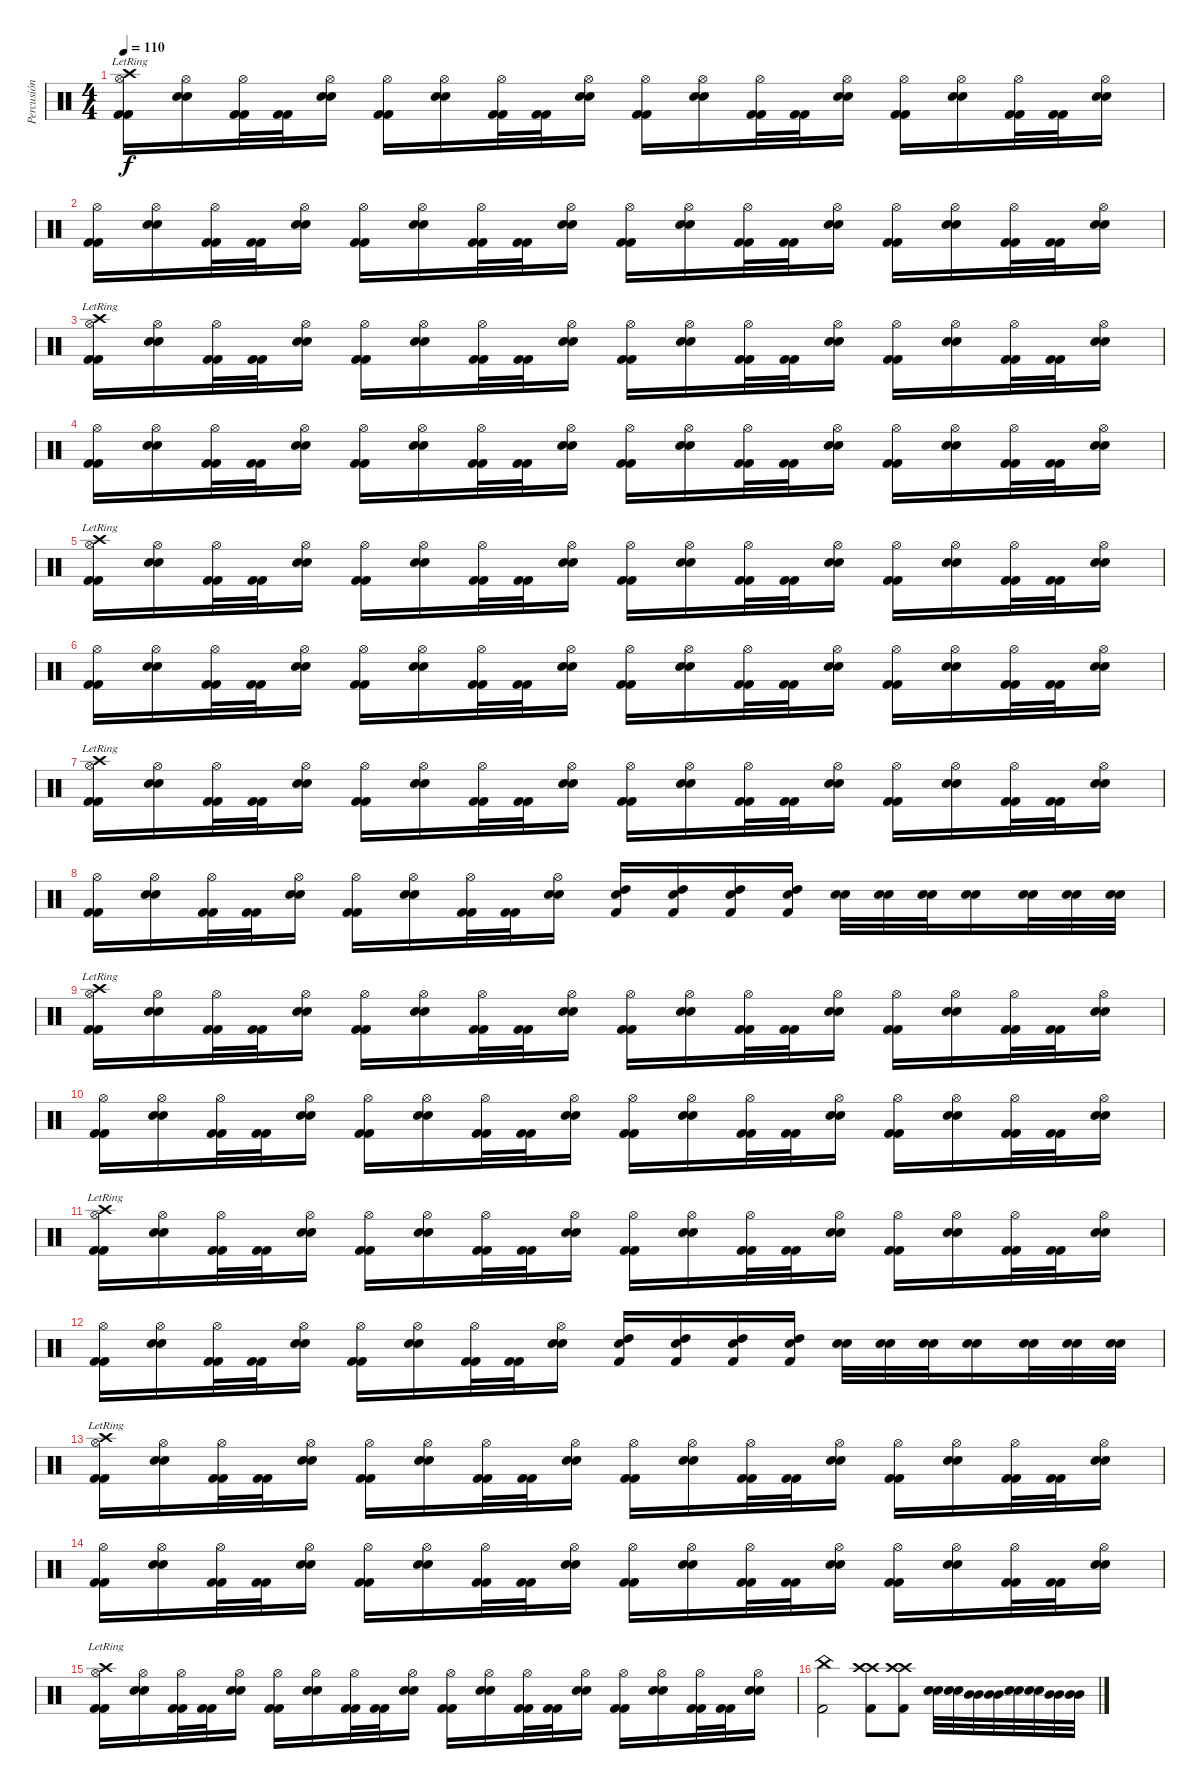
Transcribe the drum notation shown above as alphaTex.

\track ("Percusión" "Percusión") {instrument percussion}
\staff {score}
\articulation defaults
\ts (4 4)
\tempo 110
\clef neutral
\ks c
("Kick (hit) 2" "Kick (hit) 2" "Hi-Hat (open)" "Crash high (hit)"{lr}).16{dy f} ("Snare (hit) 2" "Snare (hit) 2" "Hi-Hat (open)").16 ("Kick (hit) 2" "Kick (hit) 2" "Hi-Hat (open)").32 ("Kick (hit) 2" "Kick (hit) 2").32 ("Snare (hit) 2" "Snare (hit) 2" "Hi-Hat (open)").16 ("Kick (hit) 2" "Kick (hit) 2" "Hi-Hat (open)").16 ("Snare (hit) 2" "Snare (hit) 2" "Hi-Hat (open)").16 ("Kick (hit) 2" "Kick (hit) 2" "Hi-Hat (open)").32 ("Kick (hit) 2" "Kick (hit) 2").32 ("Snare (hit) 2" "Snare (hit) 2" "Hi-Hat (open)").16 ("Kick (hit) 2" "Kick (hit) 2" "Hi-Hat (open)").16 ("Snare (hit) 2" "Snare (hit) 2" "Hi-Hat (open)").16 ("Kick (hit) 2" "Kick (hit) 2" "Hi-Hat (open)").32 ("Kick (hit) 2" "Kick (hit) 2").32 ("Snare (hit) 2" "Snare (hit) 2" "Hi-Hat (open)").16 ("Kick (hit) 2" "Kick (hit) 2" "Hi-Hat (open)").16 ("Snare (hit) 2" "Snare (hit) 2" "Hi-Hat (open)").16 ("Kick (hit) 2" "Kick (hit) 2" "Hi-Hat (open)").32 ("Kick (hit) 2" "Kick (hit) 2").32 ("Snare (hit) 2" "Snare (hit) 2" "Hi-Hat (open)").16 |
("Kick (hit) 2" "Kick (hit) 2" "Hi-Hat (open)").16 ("Snare (hit) 2" "Snare (hit) 2" "Hi-Hat (open)").16 ("Kick (hit) 2" "Kick (hit) 2" "Hi-Hat (open)").32 ("Kick (hit) 2" "Kick (hit) 2").32 ("Snare (hit) 2" "Snare (hit) 2" "Hi-Hat (open)").16 ("Kick (hit) 2" "Kick (hit) 2" "Hi-Hat (open)").16 ("Snare (hit) 2" "Snare (hit) 2" "Hi-Hat (open)").16 ("Kick (hit) 2" "Kick (hit) 2" "Hi-Hat (open)").32 ("Kick (hit) 2" "Kick (hit) 2").32 ("Snare (hit) 2" "Snare (hit) 2" "Hi-Hat (open)").16 ("Kick (hit) 2" "Kick (hit) 2" "Hi-Hat (open)").16 ("Snare (hit) 2" "Snare (hit) 2" "Hi-Hat (open)").16 ("Kick (hit) 2" "Kick (hit) 2" "Hi-Hat (open)").32 ("Kick (hit) 2" "Kick (hit) 2").32 ("Snare (hit) 2" "Snare (hit) 2" "Hi-Hat (open)").16 ("Kick (hit) 2" "Kick (hit) 2" "Hi-Hat (open)").16 ("Snare (hit) 2" "Snare (hit) 2" "Hi-Hat (open)").16 ("Kick (hit) 2" "Kick (hit) 2" "Hi-Hat (open)").32 ("Kick (hit) 2" "Kick (hit) 2").32 ("Snare (hit) 2" "Snare (hit) 2" "Hi-Hat (open)").16 |
("Kick (hit) 2" "Kick (hit) 2" "Hi-Hat (open)" "Crash high (hit)"{lr}).16 ("Snare (hit) 2" "Snare (hit) 2" "Hi-Hat (open)").16 ("Kick (hit) 2" "Kick (hit) 2" "Hi-Hat (open)").32 ("Kick (hit) 2" "Kick (hit) 2").32 ("Snare (hit) 2" "Snare (hit) 2" "Hi-Hat (open)").16 ("Kick (hit) 2" "Kick (hit) 2" "Hi-Hat (open)").16 ("Snare (hit) 2" "Snare (hit) 2" "Hi-Hat (open)").16 ("Kick (hit) 2" "Kick (hit) 2" "Hi-Hat (open)").32 ("Kick (hit) 2" "Kick (hit) 2").32 ("Snare (hit) 2" "Snare (hit) 2" "Hi-Hat (open)").16 ("Kick (hit) 2" "Kick (hit) 2" "Hi-Hat (open)").16 ("Snare (hit) 2" "Snare (hit) 2" "Hi-Hat (open)").16 ("Kick (hit) 2" "Kick (hit) 2" "Hi-Hat (open)").32 ("Kick (hit) 2" "Kick (hit) 2").32 ("Snare (hit) 2" "Snare (hit) 2" "Hi-Hat (open)").16 ("Kick (hit) 2" "Kick (hit) 2" "Hi-Hat (open)").16 ("Snare (hit) 2" "Snare (hit) 2" "Hi-Hat (open)").16 ("Kick (hit) 2" "Kick (hit) 2" "Hi-Hat (open)").32 ("Kick (hit) 2" "Kick (hit) 2").32 ("Snare (hit) 2" "Snare (hit) 2" "Hi-Hat (open)").16 |
("Kick (hit) 2" "Kick (hit) 2" "Hi-Hat (open)").16 ("Snare (hit) 2" "Snare (hit) 2" "Hi-Hat (open)").16 ("Kick (hit) 2" "Kick (hit) 2" "Hi-Hat (open)").32 ("Kick (hit) 2" "Kick (hit) 2").32 ("Snare (hit) 2" "Snare (hit) 2" "Hi-Hat (open)").16 ("Kick (hit) 2" "Kick (hit) 2" "Hi-Hat (open)").16 ("Snare (hit) 2" "Snare (hit) 2" "Hi-Hat (open)").16 ("Kick (hit) 2" "Kick (hit) 2" "Hi-Hat (open)").32 ("Kick (hit) 2" "Kick (hit) 2").32 ("Snare (hit) 2" "Snare (hit) 2" "Hi-Hat (open)").16 ("Kick (hit) 2" "Kick (hit) 2" "Hi-Hat (open)").16 ("Snare (hit) 2" "Snare (hit) 2" "Hi-Hat (open)").16 ("Kick (hit) 2" "Kick (hit) 2" "Hi-Hat (open)").32 ("Kick (hit) 2" "Kick (hit) 2").32 ("Snare (hit) 2" "Snare (hit) 2" "Hi-Hat (open)").16 ("Kick (hit) 2" "Kick (hit) 2" "Hi-Hat (open)").16 ("Snare (hit) 2" "Snare (hit) 2" "Hi-Hat (open)").16 ("Kick (hit) 2" "Kick (hit) 2" "Hi-Hat (open)").32 ("Kick (hit) 2" "Kick (hit) 2").32 ("Snare (hit) 2" "Snare (hit) 2" "Hi-Hat (open)").16 |
("Kick (hit) 2" "Kick (hit) 2" "Hi-Hat (open)" "Crash high (hit)"{lr}).16 ("Snare (hit) 2" "Snare (hit) 2" "Hi-Hat (open)").16 ("Kick (hit) 2" "Kick (hit) 2" "Hi-Hat (open)").32 ("Kick (hit) 2" "Kick (hit) 2").32 ("Snare (hit) 2" "Snare (hit) 2" "Hi-Hat (open)").16 ("Kick (hit) 2" "Kick (hit) 2" "Hi-Hat (open)").16 ("Snare (hit) 2" "Snare (hit) 2" "Hi-Hat (open)").16 ("Kick (hit) 2" "Kick (hit) 2" "Hi-Hat (open)").32 ("Kick (hit) 2" "Kick (hit) 2").32 ("Snare (hit) 2" "Snare (hit) 2" "Hi-Hat (open)").16 ("Kick (hit) 2" "Kick (hit) 2" "Hi-Hat (open)").16 ("Snare (hit) 2" "Snare (hit) 2" "Hi-Hat (open)").16 ("Kick (hit) 2" "Kick (hit) 2" "Hi-Hat (open)").32 ("Kick (hit) 2" "Kick (hit) 2").32 ("Snare (hit) 2" "Snare (hit) 2" "Hi-Hat (open)").16 ("Kick (hit) 2" "Kick (hit) 2" "Hi-Hat (open)").16 ("Snare (hit) 2" "Snare (hit) 2" "Hi-Hat (open)").16 ("Kick (hit) 2" "Kick (hit) 2" "Hi-Hat (open)").32 ("Kick (hit) 2" "Kick (hit) 2").32 ("Snare (hit) 2" "Snare (hit) 2" "Hi-Hat (open)").16 |
("Kick (hit) 2" "Kick (hit) 2" "Hi-Hat (open)").16 ("Snare (hit) 2" "Snare (hit) 2" "Hi-Hat (open)").16 ("Kick (hit) 2" "Kick (hit) 2" "Hi-Hat (open)").32 ("Kick (hit) 2" "Kick (hit) 2").32 ("Snare (hit) 2" "Snare (hit) 2" "Hi-Hat (open)").16 ("Kick (hit) 2" "Kick (hit) 2" "Hi-Hat (open)").16 ("Snare (hit) 2" "Snare (hit) 2" "Hi-Hat (open)").16 ("Kick (hit) 2" "Kick (hit) 2" "Hi-Hat (open)").32 ("Kick (hit) 2" "Kick (hit) 2").32 ("Snare (hit) 2" "Snare (hit) 2" "Hi-Hat (open)").16 ("Kick (hit) 2" "Kick (hit) 2" "Hi-Hat (open)").16 ("Snare (hit) 2" "Snare (hit) 2" "Hi-Hat (open)").16 ("Kick (hit) 2" "Kick (hit) 2" "Hi-Hat (open)").32 ("Kick (hit) 2" "Kick (hit) 2").32 ("Snare (hit) 2" "Snare (hit) 2" "Hi-Hat (open)").16 ("Kick (hit) 2" "Kick (hit) 2" "Hi-Hat (open)").16 ("Snare (hit) 2" "Snare (hit) 2" "Hi-Hat (open)").16 ("Kick (hit) 2" "Kick (hit) 2" "Hi-Hat (open)").32 ("Kick (hit) 2" "Kick (hit) 2").32 ("Snare (hit) 2" "Snare (hit) 2" "Hi-Hat (open)").16 |
("Kick (hit) 2" "Kick (hit) 2" "Hi-Hat (open)" "Crash high (hit)"{lr}).16 ("Snare (hit) 2" "Snare (hit) 2" "Hi-Hat (open)").16 ("Kick (hit) 2" "Kick (hit) 2" "Hi-Hat (open)").32 ("Kick (hit) 2" "Kick (hit) 2").32 ("Snare (hit) 2" "Snare (hit) 2" "Hi-Hat (open)").16 ("Kick (hit) 2" "Kick (hit) 2" "Hi-Hat (open)").16 ("Snare (hit) 2" "Snare (hit) 2" "Hi-Hat (open)").16 ("Kick (hit) 2" "Kick (hit) 2" "Hi-Hat (open)").32 ("Kick (hit) 2" "Kick (hit) 2").32 ("Snare (hit) 2" "Snare (hit) 2" "Hi-Hat (open)").16 ("Kick (hit) 2" "Kick (hit) 2" "Hi-Hat (open)").16 ("Snare (hit) 2" "Snare (hit) 2" "Hi-Hat (open)").16 ("Kick (hit) 2" "Kick (hit) 2" "Hi-Hat (open)").32 ("Kick (hit) 2" "Kick (hit) 2").32 ("Snare (hit) 2" "Snare (hit) 2" "Hi-Hat (open)").16 ("Kick (hit) 2" "Kick (hit) 2" "Hi-Hat (open)").16 ("Snare (hit) 2" "Snare (hit) 2" "Hi-Hat (open)").16 ("Kick (hit) 2" "Kick (hit) 2" "Hi-Hat (open)").32 ("Kick (hit) 2" "Kick (hit) 2").32 ("Snare (hit) 2" "Snare (hit) 2" "Hi-Hat (open)").16 |
("Kick (hit) 2" "Kick (hit) 2" "Hi-Hat (open)").16 ("Snare (hit) 2" "Snare (hit) 2" "Hi-Hat (open)").16 ("Kick (hit) 2" "Kick (hit) 2" "Hi-Hat (open)").32 ("Kick (hit) 2" "Kick (hit) 2").32 ("Snare (hit) 2" "Snare (hit) 2" "Hi-Hat (open)").16 ("Kick (hit) 2" "Kick (hit) 2" "Hi-Hat (open)").16 ("Snare (hit) 2" "Snare (hit) 2" "Hi-Hat (open)").16 ("Kick (hit) 2" "Kick (hit) 2" "Hi-Hat (open)").32 ("Kick (hit) 2" "Kick (hit) 2").32 ("Snare (hit) 2" "Snare (hit) 2" "Hi-Hat (open)").16 ("Snare (hit) 2" "High Tom (hit)" "Kick (hit) 2").16 ("Snare (hit) 2" "High Tom (hit)" "Kick (hit) 2").16 ("Snare (hit) 2" "High Tom (hit)" "Kick (hit) 2").16 ("Snare (hit) 2" "High Tom (hit)" "Kick (hit) 2").16 ("Snare (hit) 2" "Snare (hit) 2").32 ("Snare (hit) 2" "Snare (hit) 2").32 ("Snare (hit) 2" "Snare (hit) 2").32 ("Snare (hit) 2" "Snare (hit) 2").16 ("Snare (hit) 2" "Snare (hit) 2").32 ("Snare (hit) 2" "Snare (hit) 2").32 ("Snare (hit) 2" "Snare (hit) 2").32 |
("Kick (hit) 2" "Kick (hit) 2" "Hi-Hat (open)" "Crash high (hit)"{lr}).16 ("Snare (hit) 2" "Snare (hit) 2" "Hi-Hat (open)").16 ("Kick (hit) 2" "Kick (hit) 2" "Hi-Hat (open)").32 ("Kick (hit) 2" "Kick (hit) 2").32 ("Snare (hit) 2" "Snare (hit) 2" "Hi-Hat (open)").16 ("Kick (hit) 2" "Kick (hit) 2" "Hi-Hat (open)").16 ("Snare (hit) 2" "Snare (hit) 2" "Hi-Hat (open)").16 ("Kick (hit) 2" "Kick (hit) 2" "Hi-Hat (open)").32 ("Kick (hit) 2" "Kick (hit) 2").32 ("Snare (hit) 2" "Snare (hit) 2" "Hi-Hat (open)").16 ("Kick (hit) 2" "Kick (hit) 2" "Hi-Hat (open)").16 ("Snare (hit) 2" "Snare (hit) 2" "Hi-Hat (open)").16 ("Kick (hit) 2" "Kick (hit) 2" "Hi-Hat (open)").32 ("Kick (hit) 2" "Kick (hit) 2").32 ("Snare (hit) 2" "Snare (hit) 2" "Hi-Hat (open)").16 ("Kick (hit) 2" "Kick (hit) 2" "Hi-Hat (open)").16 ("Snare (hit) 2" "Snare (hit) 2" "Hi-Hat (open)").16 ("Kick (hit) 2" "Kick (hit) 2" "Hi-Hat (open)").32 ("Kick (hit) 2" "Kick (hit) 2").32 ("Snare (hit) 2" "Snare (hit) 2" "Hi-Hat (open)").16 |
("Kick (hit) 2" "Kick (hit) 2" "Hi-Hat (open)").16 ("Snare (hit) 2" "Snare (hit) 2" "Hi-Hat (open)").16 ("Kick (hit) 2" "Kick (hit) 2" "Hi-Hat (open)").32 ("Kick (hit) 2" "Kick (hit) 2").32 ("Snare (hit) 2" "Snare (hit) 2" "Hi-Hat (open)").16 ("Kick (hit) 2" "Kick (hit) 2" "Hi-Hat (open)").16 ("Snare (hit) 2" "Snare (hit) 2" "Hi-Hat (open)").16 ("Kick (hit) 2" "Kick (hit) 2" "Hi-Hat (open)").32 ("Kick (hit) 2" "Kick (hit) 2").32 ("Snare (hit) 2" "Snare (hit) 2" "Hi-Hat (open)").16 ("Kick (hit) 2" "Kick (hit) 2" "Hi-Hat (open)").16 ("Snare (hit) 2" "Snare (hit) 2" "Hi-Hat (open)").16 ("Kick (hit) 2" "Kick (hit) 2" "Hi-Hat (open)").32 ("Kick (hit) 2" "Kick (hit) 2").32 ("Snare (hit) 2" "Snare (hit) 2" "Hi-Hat (open)").16 ("Kick (hit) 2" "Kick (hit) 2" "Hi-Hat (open)").16 ("Snare (hit) 2" "Snare (hit) 2" "Hi-Hat (open)").16 ("Kick (hit) 2" "Kick (hit) 2" "Hi-Hat (open)").32 ("Kick (hit) 2" "Kick (hit) 2").32 ("Snare (hit) 2" "Snare (hit) 2" "Hi-Hat (open)").16 |
("Kick (hit) 2" "Kick (hit) 2" "Hi-Hat (open)" "Crash high (hit)"{lr}).16 ("Snare (hit) 2" "Snare (hit) 2" "Hi-Hat (open)").16 ("Kick (hit) 2" "Kick (hit) 2" "Hi-Hat (open)").32 ("Kick (hit) 2" "Kick (hit) 2").32 ("Snare (hit) 2" "Snare (hit) 2" "Hi-Hat (open)").16 ("Kick (hit) 2" "Kick (hit) 2" "Hi-Hat (open)").16 ("Snare (hit) 2" "Snare (hit) 2" "Hi-Hat (open)").16 ("Kick (hit) 2" "Kick (hit) 2" "Hi-Hat (open)").32 ("Kick (hit) 2" "Kick (hit) 2").32 ("Snare (hit) 2" "Snare (hit) 2" "Hi-Hat (open)").16 ("Kick (hit) 2" "Kick (hit) 2" "Hi-Hat (open)").16 ("Snare (hit) 2" "Snare (hit) 2" "Hi-Hat (open)").16 ("Kick (hit) 2" "Kick (hit) 2" "Hi-Hat (open)").32 ("Kick (hit) 2" "Kick (hit) 2").32 ("Snare (hit) 2" "Snare (hit) 2" "Hi-Hat (open)").16 ("Kick (hit) 2" "Kick (hit) 2" "Hi-Hat (open)").16 ("Snare (hit) 2" "Snare (hit) 2" "Hi-Hat (open)").16 ("Kick (hit) 2" "Kick (hit) 2" "Hi-Hat (open)").32 ("Kick (hit) 2" "Kick (hit) 2").32 ("Snare (hit) 2" "Snare (hit) 2" "Hi-Hat (open)").16 |
("Kick (hit) 2" "Kick (hit) 2" "Hi-Hat (open)").16 ("Snare (hit) 2" "Snare (hit) 2" "Hi-Hat (open)").16 ("Kick (hit) 2" "Kick (hit) 2" "Hi-Hat (open)").32 ("Kick (hit) 2" "Kick (hit) 2").32 ("Snare (hit) 2" "Snare (hit) 2" "Hi-Hat (open)").16 ("Kick (hit) 2" "Kick (hit) 2" "Hi-Hat (open)").16 ("Snare (hit) 2" "Snare (hit) 2" "Hi-Hat (open)").16 ("Kick (hit) 2" "Kick (hit) 2" "Hi-Hat (open)").32 ("Kick (hit) 2" "Kick (hit) 2").32 ("Snare (hit) 2" "Snare (hit) 2" "Hi-Hat (open)").16 ("Snare (hit) 2" "High Tom (hit)" "Kick (hit) 2").16 ("Snare (hit) 2" "High Tom (hit)" "Kick (hit) 2").16 ("Snare (hit) 2" "High Tom (hit)" "Kick (hit) 2").16 ("Snare (hit) 2" "High Tom (hit)" "Kick (hit) 2").16 ("Snare (hit) 2" "Snare (hit) 2").32 ("Snare (hit) 2" "Snare (hit) 2").32 ("Snare (hit) 2" "Snare (hit) 2").32 ("Snare (hit) 2" "Snare (hit) 2").16 ("Snare (hit) 2" "Snare (hit) 2").32 ("Snare (hit) 2" "Snare (hit) 2").32 ("Snare (hit) 2" "Snare (hit) 2").32 |
("Kick (hit) 2" "Kick (hit) 2" "Hi-Hat (open)" "Crash high (hit)"{lr}).16 ("Snare (hit) 2" "Snare (hit) 2" "Hi-Hat (open)").16 ("Kick (hit) 2" "Kick (hit) 2" "Hi-Hat (open)").32 ("Kick (hit) 2" "Kick (hit) 2").32 ("Snare (hit) 2" "Snare (hit) 2" "Hi-Hat (open)").16 ("Kick (hit) 2" "Kick (hit) 2" "Hi-Hat (open)").16 ("Snare (hit) 2" "Snare (hit) 2" "Hi-Hat (open)").16 ("Kick (hit) 2" "Kick (hit) 2" "Hi-Hat (open)").32 ("Kick (hit) 2" "Kick (hit) 2").32 ("Snare (hit) 2" "Snare (hit) 2" "Hi-Hat (open)").16 ("Kick (hit) 2" "Kick (hit) 2" "Hi-Hat (open)").16 ("Snare (hit) 2" "Snare (hit) 2" "Hi-Hat (open)").16 ("Kick (hit) 2" "Kick (hit) 2" "Hi-Hat (open)").32 ("Kick (hit) 2" "Kick (hit) 2").32 ("Snare (hit) 2" "Snare (hit) 2" "Hi-Hat (open)").16 ("Kick (hit) 2" "Kick (hit) 2" "Hi-Hat (open)").16 ("Snare (hit) 2" "Snare (hit) 2" "Hi-Hat (open)").16 ("Kick (hit) 2" "Kick (hit) 2" "Hi-Hat (open)").32 ("Kick (hit) 2" "Kick (hit) 2").32 ("Snare (hit) 2" "Snare (hit) 2" "Hi-Hat (open)").16 |
("Kick (hit) 2" "Kick (hit) 2" "Hi-Hat (open)").16 ("Snare (hit) 2" "Snare (hit) 2" "Hi-Hat (open)").16 ("Kick (hit) 2" "Kick (hit) 2" "Hi-Hat (open)").32 ("Kick (hit) 2" "Kick (hit) 2").32 ("Snare (hit) 2" "Snare (hit) 2" "Hi-Hat (open)").16 ("Kick (hit) 2" "Kick (hit) 2" "Hi-Hat (open)").16 ("Snare (hit) 2" "Snare (hit) 2" "Hi-Hat (open)").16 ("Kick (hit) 2" "Kick (hit) 2" "Hi-Hat (open)").32 ("Kick (hit) 2" "Kick (hit) 2").32 ("Snare (hit) 2" "Snare (hit) 2" "Hi-Hat (open)").16 ("Kick (hit) 2" "Kick (hit) 2" "Hi-Hat (open)").16 ("Snare (hit) 2" "Snare (hit) 2" "Hi-Hat (open)").16 ("Kick (hit) 2" "Kick (hit) 2" "Hi-Hat (open)").32 ("Kick (hit) 2" "Kick (hit) 2").32 ("Snare (hit) 2" "Snare (hit) 2" "Hi-Hat (open)").16 ("Kick (hit) 2" "Kick (hit) 2" "Hi-Hat (open)").16 ("Snare (hit) 2" "Snare (hit) 2" "Hi-Hat (open)").16 ("Kick (hit) 2" "Kick (hit) 2" "Hi-Hat (open)").32 ("Kick (hit) 2" "Kick (hit) 2").32 ("Snare (hit) 2" "Snare (hit) 2" "Hi-Hat (open)").16 |
("Kick (hit) 2" "Kick (hit) 2" "Hi-Hat (open)" "Crash high (hit)"{lr}).16 ("Snare (hit) 2" "Snare (hit) 2" "Hi-Hat (open)").16 ("Kick (hit) 2" "Kick (hit) 2" "Hi-Hat (open)").32 ("Kick (hit) 2" "Kick (hit) 2").32 ("Snare (hit) 2" "Snare (hit) 2" "Hi-Hat (open)").16 ("Kick (hit) 2" "Kick (hit) 2" "Hi-Hat (open)").16 ("Snare (hit) 2" "Snare (hit) 2" "Hi-Hat (open)").16 ("Kick (hit) 2" "Kick (hit) 2" "Hi-Hat (open)").32 ("Kick (hit) 2" "Kick (hit) 2").32 ("Snare (hit) 2" "Snare (hit) 2" "Hi-Hat (open)").16 ("Kick (hit) 2" "Kick (hit) 2" "Hi-Hat (open)").16 ("Snare (hit) 2" "Snare (hit) 2" "Hi-Hat (open)").16 ("Kick (hit) 2" "Kick (hit) 2" "Hi-Hat (open)").32 ("Kick (hit) 2" "Kick (hit) 2").32 ("Snare (hit) 2" "Snare (hit) 2" "Hi-Hat (open)").16 ("Kick (hit) 2" "Kick (hit) 2" "Hi-Hat (open)").16 ("Snare (hit) 2" "Snare (hit) 2" "Hi-Hat (open)").16 ("Kick (hit) 2" "Kick (hit) 2" "Hi-Hat (open)").32 ("Kick (hit) 2" "Kick (hit) 2").32 ("Snare (hit) 2" "Snare (hit) 2" "Hi-Hat (open)").16 |
("China (hit)" "Kick (hit) 2").2 ("Crash high (hit)" "Crash high (hit)" "Kick (hit) 2").8 ("Crash high (hit)" "Crash high (hit)" "Kick (hit) 2").8 ("Snare (hit) 2" "Snare (hit) 2").32 ("Snare (hit) 2" "Snare (hit) 2").32 ("Mid Tom (hit)" "Mid Tom (hit)").32 ("Mid Tom (hit)" "Mid Tom (hit)").32 ("Snare (hit) 2" "Snare (hit) 2").32 ("Snare (hit) 2" "Snare (hit) 2").32 ("Mid Tom (hit)" "Mid Tom (hit)").32 ("Mid Tom (hit)" "Mid Tom (hit)").32
